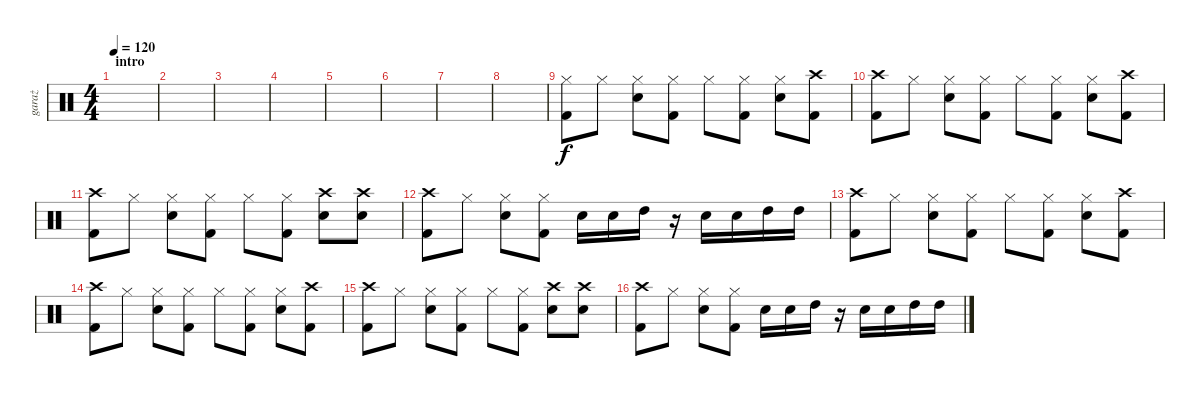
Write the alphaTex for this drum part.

\track ("garaż" "garaż") {instrument percussion}
\staff {score}
\articulation defaults
\ts (4 4)
\section ("" "intro")
\tempo 120
\clef neutral
\ks c
|
|
|
|
|
|
|
|
("Hi-Hat (closed)" "Kick (hit) 2").8 "Hi-Hat (closed)".8 ("Hi-Hat (closed)" "Snare (hit) 2").8 ("Hi-Hat (closed)" "Kick (hit) 2").8 "Hi-Hat (closed)".8 ("Hi-Hat (closed)" "Kick (hit) 2").8 ("Hi-Hat (closed)" "Snare (hit) 2").8 ("Crash high (hit)" "Kick (hit) 2").8 |
("Crash high (hit)" "Kick (hit) 2").8 "Hi-Hat (closed)".8 ("Hi-Hat (closed)" "Snare (hit) 2").8 ("Hi-Hat (closed)" "Kick (hit) 2").8 "Hi-Hat (closed)".8 ("Hi-Hat (closed)" "Kick (hit) 2").8 ("Hi-Hat (closed)" "Snare (hit) 2").8 ("Crash high (hit)" "Kick (hit) 2").8 |
("Crash high (hit)" "Kick (hit) 2").8 "Hi-Hat (closed)".8 ("Hi-Hat (closed)" "Snare (hit) 2").8 ("Hi-Hat (closed)" "Kick (hit) 2").8 "Hi-Hat (closed)".8 ("Hi-Hat (closed)" "Kick (hit) 2").8 ("Crash high (hit)" "Snare (hit) 2").8 ("Crash high (hit)" "Snare (hit) 2").8 |
("Crash high (hit)" "Kick (hit) 2").8 "Hi-Hat (closed)".8 ("Hi-Hat (closed)" "Snare (hit) 2").8 ("Hi-Hat (closed)" "Kick (hit) 2").8 "Snare (hit) 2".16 "Snare (hit) 2".16 "High Tom (hit)".16 r.16 "Snare (hit) 2".16 "Snare (hit) 2".16 "High Tom (hit)".16 "High Tom (hit)".16 |
("Crash high (hit)" "Kick (hit) 2").8 "Hi-Hat (closed)".8 ("Hi-Hat (closed)" "Snare (hit) 2").8 ("Hi-Hat (closed)" "Kick (hit) 2").8 "Hi-Hat (closed)".8 ("Hi-Hat (closed)" "Kick (hit) 2").8 ("Hi-Hat (closed)" "Snare (hit) 2").8 ("Crash high (hit)" "Kick (hit) 2").8 |
("Crash high (hit)" "Kick (hit) 2").8 "Hi-Hat (closed)".8 ("Hi-Hat (closed)" "Snare (hit) 2").8 ("Hi-Hat (closed)" "Kick (hit) 2").8 "Hi-Hat (closed)".8 ("Hi-Hat (closed)" "Kick (hit) 2").8 ("Hi-Hat (closed)" "Snare (hit) 2").8 ("Crash high (hit)" "Kick (hit) 2").8 |
("Crash high (hit)" "Kick (hit) 2").8 "Hi-Hat (closed)".8 ("Hi-Hat (closed)" "Snare (hit) 2").8 ("Hi-Hat (closed)" "Kick (hit) 2").8 "Hi-Hat (closed)".8 ("Hi-Hat (closed)" "Kick (hit) 2").8 ("Crash high (hit)" "Snare (hit) 2").8 ("Crash high (hit)" "Snare (hit) 2").8 |
("Crash high (hit)" "Kick (hit) 2").8 "Hi-Hat (closed)".8 ("Hi-Hat (closed)" "Snare (hit) 2").8 ("Hi-Hat (closed)" "Kick (hit) 2").8 "Snare (hit) 2".16 "Snare (hit) 2".16 "High Tom (hit)".16 r.16 "Snare (hit) 2".16 "Snare (hit) 2".16 "High Tom (hit)".16 "High Tom (hit)".16
